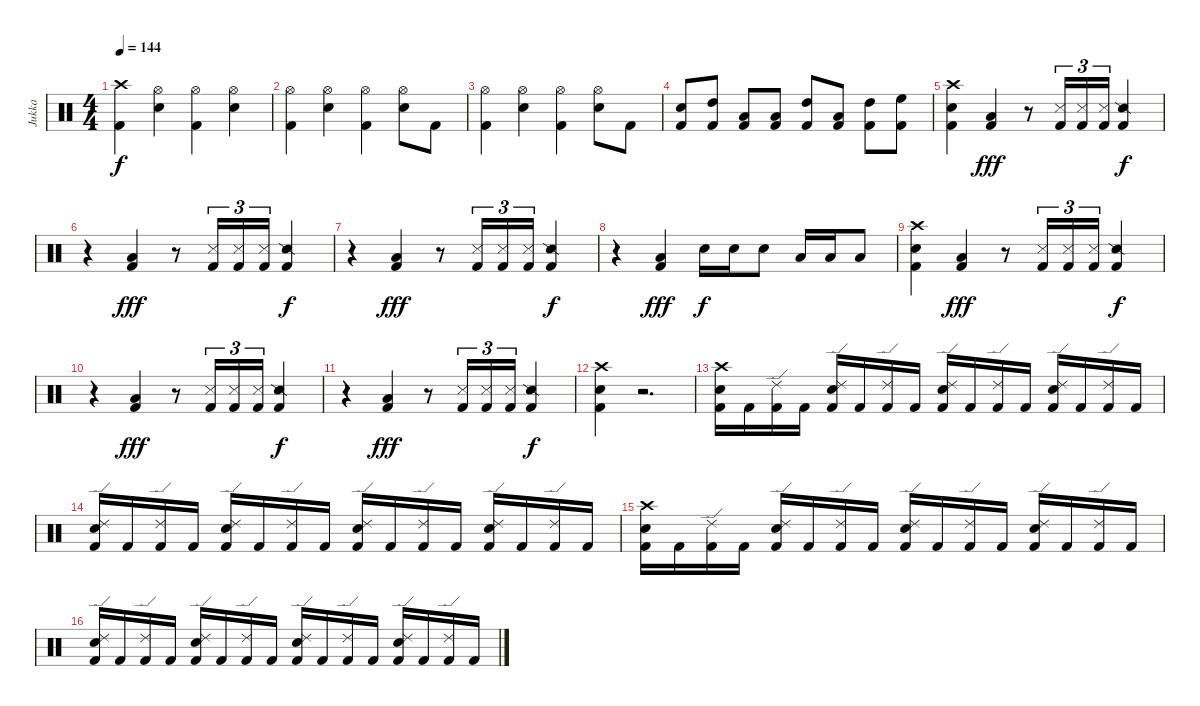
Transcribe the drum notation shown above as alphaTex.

\track ("Jukka" "Jukka") {instrument percussion}
\staff {score}
\articulation defaults
\ts (4 4)
\tempo 144
\clef neutral
\ks c
("Crash high (hit)" "Kick (hit) 2").4{dy f} ("Hi-Hat (open)" "Electric Snare (hit)").4 ("Hi-Hat (open)" "Kick (hit) 2").4 ("Hi-Hat (open)" "Electric Snare (hit)").4 |
("Hi-Hat (open)" "Kick (hit) 2").4 ("Hi-Hat (open)" "Electric Snare (hit)").4 ("Hi-Hat (open)" "Kick (hit) 2").4 ("Hi-Hat (open)" "Electric Snare (hit)").8 "Kick (hit) 2".8 |
("Hi-Hat (open)" "Kick (hit) 2").4 ("Hi-Hat (open)" "Electric Snare (hit)").4 ("Hi-Hat (open)" "Kick (hit) 2").4 ("Hi-Hat (open)" "Electric Snare (hit)").8 "Kick (hit) 2".8 |
("Electric Snare (hit)" "Kick (hit) 2").8 ("High Tom (hit)" "Kick (hit) 2").8 ("Low Tom (hit)" "Kick (hit) 2").8 ("Low Tom (hit)" "Kick (hit) 2").8 ("High Tom (hit)" "Kick (hit) 2").8 ("Low Tom (hit)" "Kick (hit) 2").8 ("High Tom (hit)" "Kick (hit) 2").8 ("High Floor Tom (hit)" "Kick (hit) 2").8 |
("Crash high (hit)" "Electric Snare (hit)" "Kick (hit) 2").4 ("Low Tom (hit)" "Kick (hit) 2").4{dy fff} r.8 ("Metronome (hit)" "Kick (hit) 2").16{tu (3 2)} ("Metronome (hit)" "Kick (hit) 2").16{tu (3 2)} ("Metronome (hit)" "Kick (hit) 2").16{tu (3 2)} ("Snare (side stick) 2" "Kick (hit) 2").4{dy f} |
r.4 ("Low Tom (hit)" "Kick (hit) 2").4{dy fff} r.8 ("Metronome (hit)" "Kick (hit) 2").16{tu (3 2)} ("Metronome (hit)" "Kick (hit) 2").16{tu (3 2)} ("Metronome (hit)" "Kick (hit) 2").16{tu (3 2)} ("Snare (side stick) 2" "Kick (hit) 2").4{dy f} |
r.4 ("Low Tom (hit)" "Kick (hit) 2").4{dy fff} r.8 ("Metronome (hit)" "Kick (hit) 2").16{tu (3 2)} ("Metronome (hit)" "Kick (hit) 2").16{tu (3 2)} ("Metronome (hit)" "Kick (hit) 2").16{tu (3 2)} ("Snare (side stick) 2" "Kick (hit) 2").4{dy f} |
r.4 ("Low Tom (hit)" "Kick (hit) 2").4{dy fff} "Electric Snare (hit)".16{dy f} "Electric Snare (hit)".16 "Electric Snare (hit)".8 "Low Tom (hit)".16 "Low Tom (hit)".16 "Low Tom (hit)".8 |
("Crash high (hit)" "Electric Snare (hit)" "Kick (hit) 2").4 ("Low Tom (hit)" "Kick (hit) 2").4{dy fff} r.8 ("Metronome (hit)" "Kick (hit) 2").16{tu (3 2)} ("Metronome (hit)" "Kick (hit) 2").16{tu (3 2)} ("Metronome (hit)" "Kick (hit) 2").16{tu (3 2)} ("Snare (side stick) 2" "Kick (hit) 2").4{dy f} |
r.4 ("Low Tom (hit)" "Kick (hit) 2").4{dy fff} r.8 ("Metronome (hit)" "Kick (hit) 2").16{tu (3 2)} ("Metronome (hit)" "Kick (hit) 2").16{tu (3 2)} ("Metronome (hit)" "Kick (hit) 2").16{tu (3 2)} ("Snare (side stick) 2" "Kick (hit) 2").4{dy f} |
r.4 ("Low Tom (hit)" "Kick (hit) 2").4{dy fff} r.8 ("Metronome (hit)" "Kick (hit) 2").16{tu (3 2)} ("Metronome (hit)" "Kick (hit) 2").16{tu (3 2)} ("Metronome (hit)" "Kick (hit) 2").16{tu (3 2)} ("Snare (side stick) 2" "Kick (hit) 2").4{dy f} |
("Crash high (hit)" "Electric Snare (hit)" "Kick (hit) 2").4 r.2{d} |
("Crash high (hit)" "Electric Snare (hit)" "Kick (hit) 2").16 "Kick (hit) 2".16 ("Ride (edge) 2" "Kick (hit) 2").16 "Kick (hit) 2".16 ("Ride (edge) 2" "Electric Snare (hit)" "Kick (hit) 2").16 "Kick (hit) 2".16 ("Ride (edge) 2" "Kick (hit) 2").16 "Kick (hit) 2".16 ("Ride (edge) 2" "Electric Snare (hit)" "Kick (hit) 2").16 "Kick (hit) 2".16 ("Ride (edge) 2" "Kick (hit) 2").16 "Kick (hit) 2".16 ("Ride (edge) 2" "Electric Snare (hit)" "Kick (hit) 2").16 "Kick (hit) 2".16 ("Ride (edge) 2" "Kick (hit) 2").16 "Kick (hit) 2".16 |
("Ride (edge) 2" "Electric Snare (hit)" "Kick (hit) 2").16 "Kick (hit) 2".16 ("Ride (edge) 2" "Kick (hit) 2").16 "Kick (hit) 2".16 ("Ride (edge) 2" "Electric Snare (hit)" "Kick (hit) 2").16 "Kick (hit) 2".16 ("Ride (edge) 2" "Kick (hit) 2").16 "Kick (hit) 2".16 ("Ride (edge) 2" "Electric Snare (hit)" "Kick (hit) 2").16 "Kick (hit) 2".16 ("Ride (edge) 2" "Kick (hit) 2").16 "Kick (hit) 2".16 ("Ride (edge) 2" "Electric Snare (hit)" "Kick (hit) 2").16 "Kick (hit) 2".16 ("Ride (edge) 2" "Kick (hit) 2").16 "Kick (hit) 2".16 |
("Crash high (hit)" "Electric Snare (hit)" "Kick (hit) 2").16 "Kick (hit) 2".16 ("Ride (edge) 2" "Kick (hit) 2").16 "Kick (hit) 2".16 ("Ride (edge) 2" "Electric Snare (hit)" "Kick (hit) 2").16 "Kick (hit) 2".16 ("Ride (edge) 2" "Kick (hit) 2").16 "Kick (hit) 2".16 ("Ride (edge) 2" "Electric Snare (hit)" "Kick (hit) 2").16 "Kick (hit) 2".16 ("Ride (edge) 2" "Kick (hit) 2").16 "Kick (hit) 2".16 ("Ride (edge) 2" "Electric Snare (hit)" "Kick (hit) 2").16 "Kick (hit) 2".16 ("Ride (edge) 2" "Kick (hit) 2").16 "Kick (hit) 2".16 |
("Ride (edge) 2" "Electric Snare (hit)" "Kick (hit) 2").16 "Kick (hit) 2".16 ("Ride (edge) 2" "Kick (hit) 2").16 "Kick (hit) 2".16 ("Ride (edge) 2" "Electric Snare (hit)" "Kick (hit) 2").16 "Kick (hit) 2".16 ("Ride (edge) 2" "Kick (hit) 2").16 "Kick (hit) 2".16 ("Ride (edge) 2" "Electric Snare (hit)" "Kick (hit) 2").16 "Kick (hit) 2".16 ("Ride (edge) 2" "Kick (hit) 2").16 "Kick (hit) 2".16 ("Ride (edge) 2" "Electric Snare (hit)" "Kick (hit) 2").16 "Kick (hit) 2".16 ("Ride (edge) 2" "Kick (hit) 2").16 "Kick (hit) 2".16
